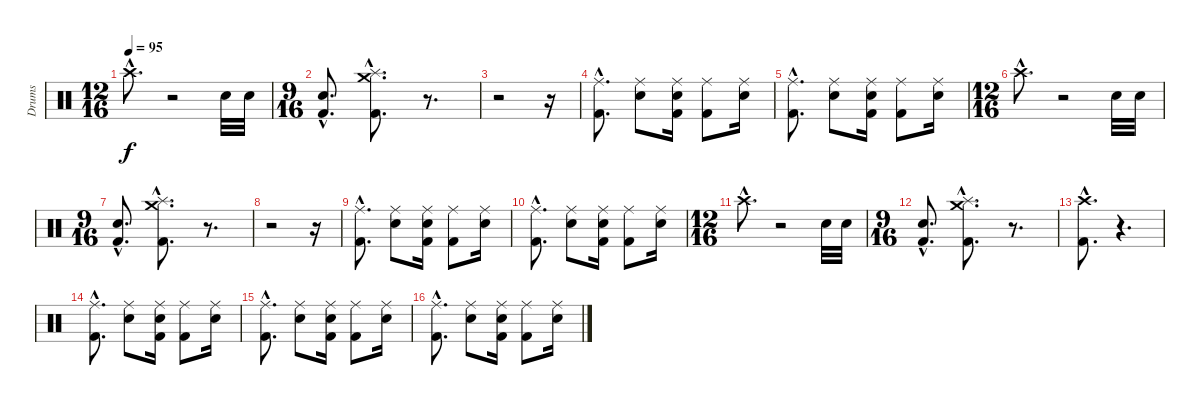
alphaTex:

\track ("Drums" "Drums") {instrument percussion}
\staff {score}
\articulation defaults
\ts (12 16)
\tempo 95
\clef neutral
\ks c "Crash high (hit)"{hac}.8{d dy f}
r.2 "Snare (hit) 2".32 "Snare (hit) 2".32 |
\ts (9 16)
("Snare (hit) 2"{hac} "Kick (hit) 2"{hac}).8{d} ("Kick (hit) 2"{hac} "Crash medium (hit)"{hac} "Splash (hit)"{hac}).8{d} r.8{d} |
r.2 r.16 |
("Kick (hit) 2"{hac} "Ride (middle)"{hac}).8{d} ("Snare (hit) 2" "Ride (middle)").8 ("Kick (hit) 2" "Snare (hit) 2" "Ride (middle)").16 ("Kick (hit) 2" "Ride (middle)").8 ("Snare (hit) 2" "Ride (middle)").16 |
("Kick (hit) 2"{hac} "Ride (middle)"{hac}).8{d} ("Snare (hit) 2" "Ride (middle)").8 ("Kick (hit) 2" "Snare (hit) 2" "Ride (middle)").16 ("Kick (hit) 2" "Ride (middle)").8 ("Snare (hit) 2" "Ride (middle)").16 |
\ts (12 16)
"Crash high (hit)"{hac}.8{d} r.2 "Snare (hit) 2".32 "Snare (hit) 2".32 |
\ts (9 16)
("Snare (hit) 2"{hac} "Kick (hit) 2"{hac}).8{d} ("Kick (hit) 2"{hac} "Crash medium (hit)"{hac} "Splash (hit)"{hac}).8{d} r.8{d} |
r.2 r.16 |
("Kick (hit) 2"{hac} "Ride (middle)"{hac}).8{d} ("Snare (hit) 2" "Ride (middle)").8 ("Kick (hit) 2" "Snare (hit) 2" "Ride (middle)").16 ("Kick (hit) 2" "Ride (middle)").8 ("Snare (hit) 2" "Ride (middle)").16 |
("Kick (hit) 2"{hac} "Ride (middle)"{hac}).8{d} ("Snare (hit) 2" "Ride (middle)").8 ("Kick (hit) 2" "Snare (hit) 2" "Ride (middle)").16 ("Kick (hit) 2" "Ride (middle)").8 ("Snare (hit) 2" "Ride (middle)").16 |
\ts (12 16)
"Crash high (hit)"{hac}.8{d} r.2 "Snare (hit) 2".32 "Snare (hit) 2".32 |
\ts (9 16)
("Snare (hit) 2"{hac} "Kick (hit) 2"{hac}).8{d} ("Kick (hit) 2"{hac} "Crash medium (hit)"{hac} "Splash (hit)"{hac}).8{d} r.8{d} |
("Kick (hit) 2"{hac} "Crash high (hit)"{hac}).8{d} r.4{d} |
("Kick (hit) 2"{hac} "Ride (middle)"{hac}).8{d} ("Snare (hit) 2" "Ride (middle)").8 ("Kick (hit) 2" "Snare (hit) 2" "Ride (middle)").16 ("Kick (hit) 2" "Ride (middle)").8 ("Snare (hit) 2" "Ride (middle)").16 |
("Kick (hit) 2"{hac} "Ride (middle)"{hac}).8{d} ("Snare (hit) 2" "Ride (middle)").8 ("Kick (hit) 2" "Snare (hit) 2" "Ride (middle)").16 ("Kick (hit) 2" "Ride (middle)").8 ("Snare (hit) 2" "Ride (middle)").16 |
("Kick (hit) 2"{hac} "Ride (middle)"{hac}).8{d} ("Snare (hit) 2" "Ride (middle)").8 ("Kick (hit) 2" "Snare (hit) 2" "Ride (middle)").16 ("Kick (hit) 2" "Ride (middle)").8 ("Snare (hit) 2" "Ride (middle)").16
